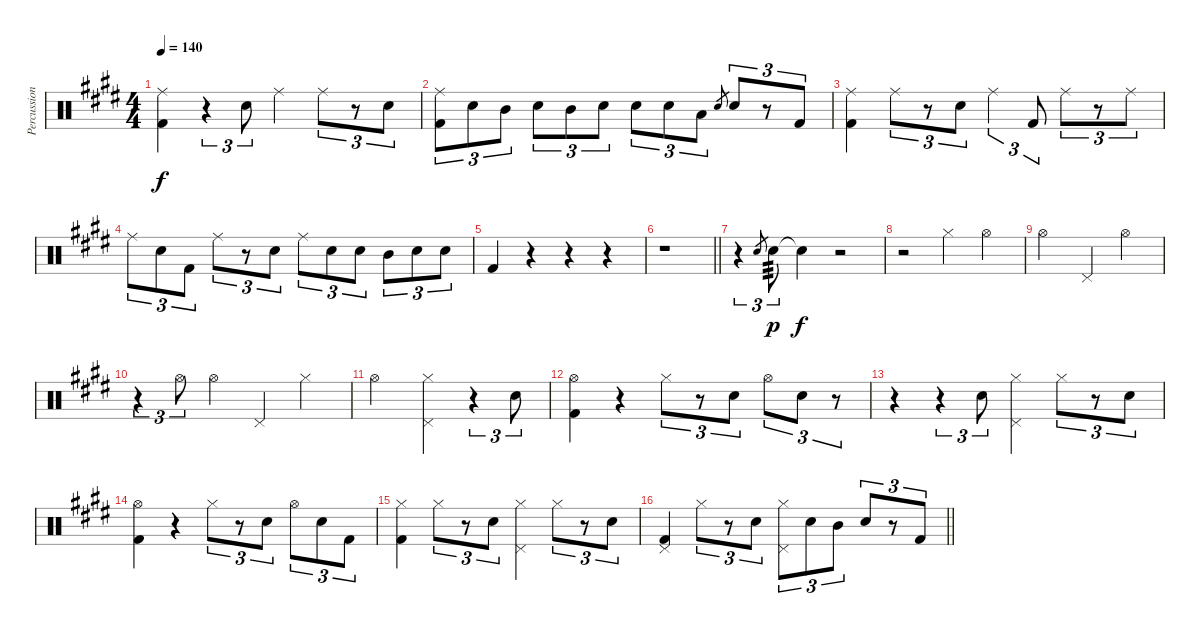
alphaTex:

\track ("Percussion" "Percussion") {instrument percussion}
\staff {score}
\articulation defaults
\ts (4 4)
\tempo 140
\clef neutral
\ks e
("Ride (middle)" "Kick (hit) 2").4{dy f} r.4{tu (3 2)} "Snare (hit) 2".8{tu (3 2)} "Ride (middle)".4 "Ride (middle)".8{tu (3 2)} r.8{tu (3 2)} "Snare (hit) 2".8{tu (3 2)} |
("Ride (middle)" "Kick (hit) 2").8{tu (3 2)} "Snare (hit) 2".8{tu (3 2)} "Mid Tom (hit)".8{tu (3 2)} "Snare (hit) 2".8{tu (3 2)} "Mid Tom (hit)".8{tu (3 2)} "Snare (hit) 2".8{tu (3 2)} "Snare (hit) 2".8{tu (3 2)} "Snare (hit) 2".8{tu (3 2)} "Low Floor Tom (hit)".8{tu (3 2)} "Snare (hit) 2".8{gr} "Snare (hit) 2".8{tu (3 2)} r.8{tu (3 2)} "Kick (hit) 2".8{tu (3 2)} |
("Ride (middle)" "Kick (hit) 2").4 "Ride (middle)".8{tu (3 2)} r.8{tu (3 2)} "Snare (hit) 2".8{tu (3 2)} "Ride (middle)".4{tu (3 2)} "Kick (hit) 2".8{tu (3 2)} "Ride (middle)".8{tu (3 2)} r.8{tu (3 2)} "Ride (middle)".8{tu (3 2)} |
"Ride (middle)".8{tu (3 2)} "Snare (hit) 2".8{tu (3 2)} "Kick (hit) 2".8{tu (3 2)} "Ride (middle)".8{tu (3 2)} r.8{tu (3 2)} "Snare (hit) 2".8{tu (3 2)} "Ride (middle)".8{tu (3 2)} "Snare (hit) 2".8{tu (3 2)} "Snare (hit) 2".8{tu (3 2)} "Mid Tom (hit)".8{tu (3 2)} "Snare (hit) 2".8{tu (3 2)} "Snare (hit) 2".8{tu (3 2)} |
"Kick (hit) 2".4 r.4 r.4 r.4 |
\barLineRight lightlight
r.1 |
r.4{tu (3 2)} "Snare (hit) 2".8{gr} "Snare (hit) 2".8{tu (3 2) tp 3 dy p} "Snare (hit)"{t}.4{dy f} r.2 |
r.2 "Hi-Hat (closed)".4 "Hi-Hat (open)".4 |
"Hi-Hat (open)".2 "Pedal Hi-Hat (hit)".4 "Hi-Hat (open)".4 |
r.4{tu (3 2)} "Hi-Hat (open)".8{tu (3 2)} "Hi-Hat (open)".4 "Pedal Hi-Hat (hit)".4 "Hi-Hat (closed)".4 |
"Hi-Hat (open)".2 ("Hi-Hat (closed)" "Pedal Hi-Hat (hit)").4 r.4{tu (3 2)} "Snare (hit) 2".8{tu (3 2)} |
("Hi-Hat (open)" "Kick (hit) 2").4 r.4 "Hi-Hat (closed)".8{tu (3 2)} r.8{tu (3 2)} "Snare (hit) 2".8{tu (3 2)} "Hi-Hat (open)".8{tu (3 2)} "Snare (hit) 2".8{tu (3 2)} r.8{tu (3 2)} |
r.4 r.4{tu (3 2)} "Snare (hit) 2".8{tu (3 2)} ("Hi-Hat (closed)" "Pedal Hi-Hat (hit)").4 "Hi-Hat (closed)".8{tu (3 2)} r.8{tu (3 2)} "Snare (hit) 2".8{tu (3 2)} |
("Hi-Hat (open)" "Kick (hit) 2").4 r.4 "Hi-Hat (closed)".8{tu (3 2)} r.8{tu (3 2)} "Snare (hit) 2".8{tu (3 2)} "Hi-Hat (open)".8{tu (3 2)} "Snare (hit) 2".8{tu (3 2)} "Kick (hit) 2".8{tu (3 2)} |
("Hi-Hat (closed)" "Kick (hit) 2").4 "Hi-Hat (closed)".8{tu (3 2)} r.8{tu (3 2)} "Snare (hit) 2".8{tu (3 2)} ("Hi-Hat (closed)" "Pedal Hi-Hat (hit)").4 "Hi-Hat (closed)".8{tu (3 2)} r.8{tu (3 2)} "Snare (hit) 2".8{tu (3 2)} |
\barLineRight lightlight
("Pedal Hi-Hat (hit)" "Kick (hit) 2").4 "Hi-Hat (closed)".8{tu (3 2)} r.8{tu (3 2)} "Snare (hit) 2".8{tu (3 2)} ("Hi-Hat (closed)" "Pedal Hi-Hat (hit)").8{tu (3 2)} "Snare (hit) 2".8{tu (3 2)} "Mid Tom (hit)".8{tu (3 2)} "Snare (hit) 2".8{tu (3 2)} r.8{tu (3 2)} "Kick (hit) 2".8{tu (3 2)}
